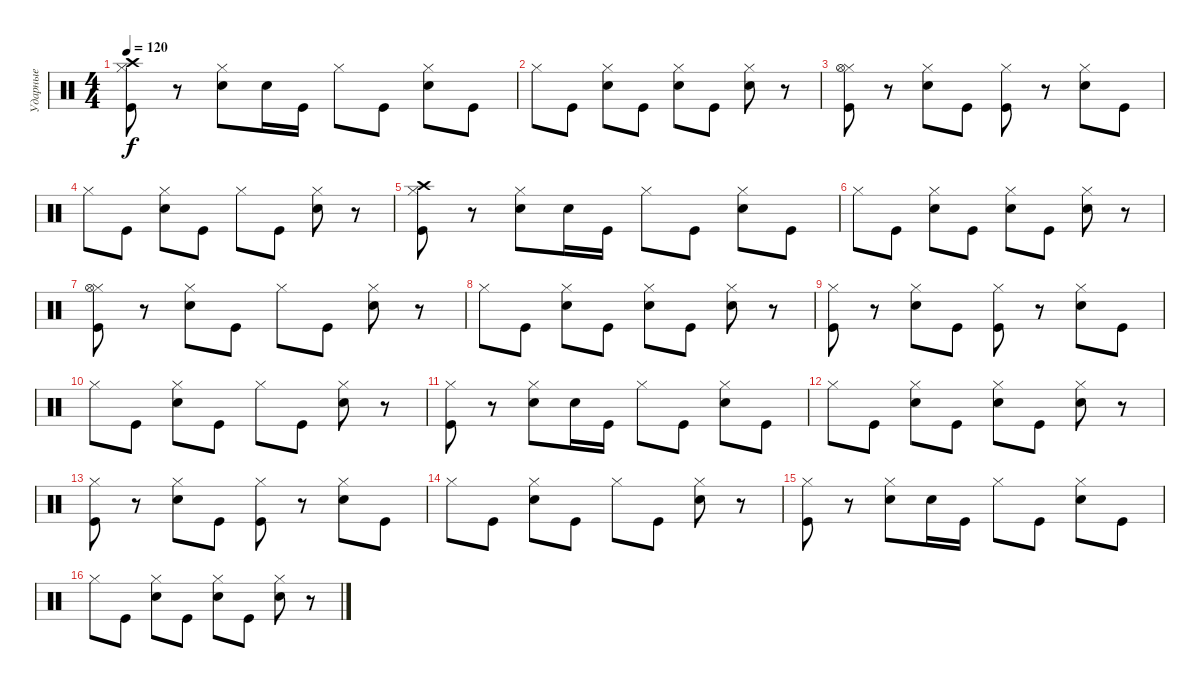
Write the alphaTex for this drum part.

\track ("Ударные" "Ударные") {instrument percussion}
\staff {score}
\articulation defaults
\ts (4 4)
\tempo 120
\clef neutral
\ks c
("Hi-Hat (closed)" "Crash high (hit)" "Kick (hit)").8{dy f} r.8 ("Hi-Hat (closed)" "Snare (hit) 2").8 "Snare (hit) 2".16 "Kick (hit)".16 "Hi-Hat (closed)".8 "Kick (hit)".8 ("Hi-Hat (closed)" "Snare (hit) 2").8 "Kick (hit)".8 |
"Hi-Hat (closed)".8 "Kick (hit)".8 ("Hi-Hat (closed)" "Snare (hit) 2").8 "Kick (hit)".8 ("Hi-Hat (closed)" "Snare (hit) 2").8 "Kick (hit)".8 ("Hi-Hat (closed)" "Snare (hit) 2").8 r.8 |
("Hi-Hat (closed)" "Kick (hit)" "Hi-Hat (open)").8 r.8 ("Hi-Hat (closed)" "Snare (hit) 2").8 "Kick (hit)".8 ("Hi-Hat (closed)" "Kick (hit)").8 r.8 ("Hi-Hat (closed)" "Snare (hit) 2").8 "Kick (hit)".8 |
"Hi-Hat (closed)".8 "Kick (hit)".8 ("Hi-Hat (closed)" "Snare (hit) 2").8 "Kick (hit)".8 "Hi-Hat (closed)".8 "Kick (hit)".8 ("Hi-Hat (closed)" "Snare (hit) 2").8 r.8 |
("Hi-Hat (closed)" "Crash high (hit)" "Kick (hit)").8 r.8 ("Hi-Hat (closed)" "Snare (hit) 2").8 "Snare (hit) 2".16 "Kick (hit)".16 "Hi-Hat (closed)".8 "Kick (hit)".8 ("Hi-Hat (closed)" "Snare (hit) 2").8 "Kick (hit)".8 |
"Hi-Hat (closed)".8 "Kick (hit)".8 ("Hi-Hat (closed)" "Snare (hit) 2").8 "Kick (hit)".8 ("Hi-Hat (closed)" "Snare (hit) 2").8 "Kick (hit)".8 ("Hi-Hat (closed)" "Snare (hit) 2").8 r.8 |
("Hi-Hat (closed)" "Kick (hit)" "Hi-Hat (open)").8 r.8 ("Hi-Hat (closed)" "Snare (hit) 2").8 "Kick (hit)".8 "Hi-Hat (closed)".8 "Kick (hit)".8 ("Hi-Hat (closed)" "Snare (hit) 2").8 r.8 |
"Hi-Hat (closed)".8 "Kick (hit)".8 ("Hi-Hat (closed)" "Snare (hit) 2").8 "Kick (hit)".8 ("Hi-Hat (closed)" "Snare (hit) 2").8 "Kick (hit)".8 ("Hi-Hat (closed)" "Snare (hit) 2").8 r.8 |
("Hi-Hat (closed)" "Kick (hit)").8 r.8 ("Hi-Hat (closed)" "Snare (hit) 2").8 "Kick (hit)".8 ("Hi-Hat (closed)" "Kick (hit)").8 r.8 ("Hi-Hat (closed)" "Snare (hit) 2").8 "Kick (hit)".8 |
"Hi-Hat (closed)".8 "Kick (hit)".8 ("Hi-Hat (closed)" "Snare (hit) 2").8 "Kick (hit)".8 "Hi-Hat (closed)".8 "Kick (hit)".8 ("Hi-Hat (closed)" "Snare (hit) 2").8 r.8 |
("Hi-Hat (closed)" "Kick (hit)").8 r.8 ("Hi-Hat (closed)" "Snare (hit) 2").8 "Snare (hit) 2".16 "Kick (hit)".16 "Hi-Hat (closed)".8 "Kick (hit)".8 ("Hi-Hat (closed)" "Snare (hit) 2").8 "Kick (hit)".8 |
"Hi-Hat (closed)".8 "Kick (hit)".8 ("Hi-Hat (closed)" "Snare (hit) 2").8 "Kick (hit)".8 ("Hi-Hat (closed)" "Snare (hit) 2").8 "Kick (hit)".8 ("Hi-Hat (closed)" "Snare (hit) 2").8 r.8 |
("Hi-Hat (closed)" "Kick (hit)").8 r.8 ("Hi-Hat (closed)" "Snare (hit) 2").8 "Kick (hit)".8 ("Hi-Hat (closed)" "Kick (hit)").8 r.8 ("Hi-Hat (closed)" "Snare (hit) 2").8 "Kick (hit)".8 |
"Hi-Hat (closed)".8 "Kick (hit)".8 ("Hi-Hat (closed)" "Snare (hit) 2").8 "Kick (hit)".8 "Hi-Hat (closed)".8 "Kick (hit)".8 ("Hi-Hat (closed)" "Snare (hit) 2").8 r.8 |
("Hi-Hat (closed)" "Kick (hit)").8 r.8 ("Hi-Hat (closed)" "Snare (hit) 2").8 "Snare (hit) 2".16 "Kick (hit)".16 "Hi-Hat (closed)".8 "Kick (hit)".8 ("Hi-Hat (closed)" "Snare (hit) 2").8 "Kick (hit)".8 |
"Hi-Hat (closed)".8 "Kick (hit)".8 ("Hi-Hat (closed)" "Snare (hit) 2").8 "Kick (hit)".8 ("Hi-Hat (closed)" "Snare (hit) 2").8 "Kick (hit)".8 ("Hi-Hat (closed)" "Snare (hit) 2").8 r.8
